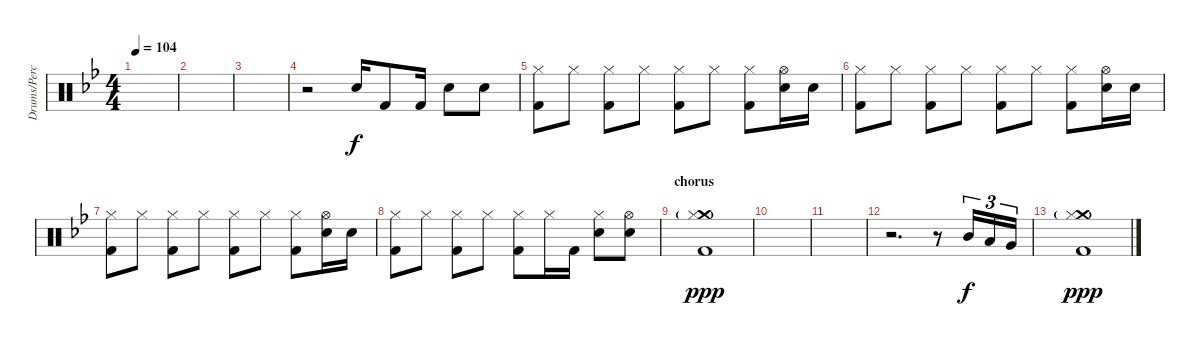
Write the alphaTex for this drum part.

\track ("Drums/Percussion (Bengerg)" "Drums/Perc") {instrument percussion}
\staff {score}
\articulation defaults
\ts (4 4)
\tempo 104
\clef neutral
\ks bb
|
|
|
r.2 "Electric Snare (hit)".16 "Kick (hit) 2".8 "Kick (hit) 2".16 "Electric Snare (hit)".8 "Electric Snare (hit)".8 |
("Hi-Hat (closed)" "Kick (hit) 2").8 "Hi-Hat (closed)".8 ("Hi-Hat (closed)" "Kick (hit) 2").8 "Hi-Hat (closed)".8 ("Hi-Hat (closed)" "Kick (hit) 2").8 "Hi-Hat (closed)".8 ("Hi-Hat (closed)" "Kick (hit) 2").8 ("Hi-Hat (open)" "Electric Snare (hit)").16 "Electric Snare (hit)".16 |
("Hi-Hat (closed)" "Kick (hit) 2").8 "Hi-Hat (closed)".8 ("Hi-Hat (closed)" "Kick (hit) 2").8 "Hi-Hat (closed)".8 ("Hi-Hat (closed)" "Kick (hit) 2").8 "Hi-Hat (closed)".8 ("Hi-Hat (closed)" "Kick (hit) 2").8 ("Hi-Hat (open)" "Electric Snare (hit)").16 "Electric Snare (hit)".16 |
("Hi-Hat (closed)" "Kick (hit) 2").8 "Hi-Hat (closed)".8 ("Hi-Hat (closed)" "Kick (hit) 2").8 "Hi-Hat (closed)".8 ("Hi-Hat (closed)" "Kick (hit) 2").8 "Hi-Hat (closed)".8 ("Hi-Hat (closed)" "Kick (hit) 2").8 ("Hi-Hat (open)" "Electric Snare (hit)").16 "Electric Snare (hit)".16 |
("Hi-Hat (closed)" "Kick (hit) 2").8 "Hi-Hat (closed)".8 ("Hi-Hat (closed)" "Kick (hit) 2").8 "Hi-Hat (closed)".8 ("Hi-Hat (closed)" "Kick (hit) 2").8 "Hi-Hat (closed)".16 "Kick (hit) 2".16 ("Hi-Hat (closed)" "Electric Snare (hit)").8 ("Hi-Hat (open)" "Electric Snare (hit)").8 |
\section ("" "chorus")
("Crash medium (hit)" "Hi-Hat (closed)"{g} "Kick (hit) 2").1{dy ppp} |
|
|
r.2{d} r.8 "Mid Tom (hit)".16{tu (3 2) dy f} "Low Tom (hit)".16{tu (3 2)} "Very Low Tom (hit)".16{tu (3 2)} |
("Crash medium (hit)" "Hi-Hat (closed)"{g} "Kick (hit) 2").1{dy ppp}
